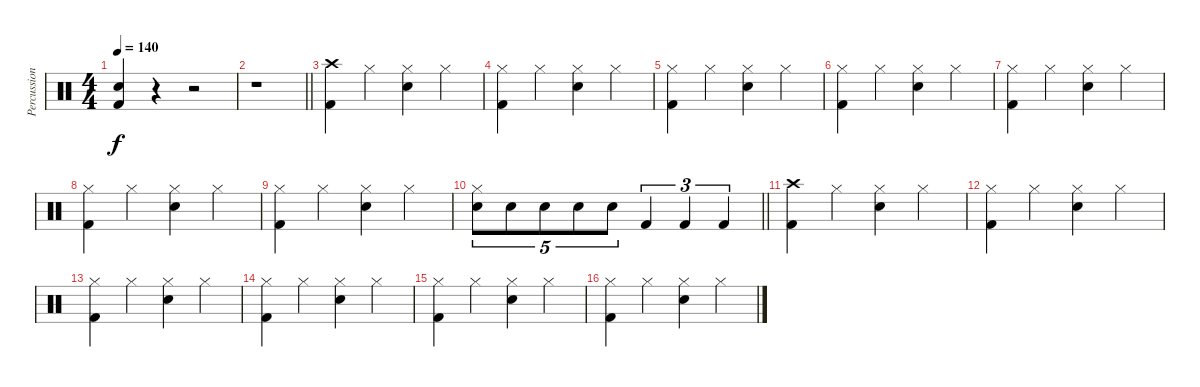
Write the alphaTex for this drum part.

\track ("Percussions" "Percussion") {instrument percussion}
\staff {score}
\articulation defaults
\ts (4 4)
\tempo 140
\clef neutral
\ks c
("Electric Snare (hit)" "Kick (hit) 2").4{dy f} r.4 r.2 |
\barLineRight lightlight
r.1 |
("Crash high (hit)" "Kick (hit) 2").4 "Hi-Hat (closed)".4 ("Hi-Hat (closed)" "Electric Snare (hit)").4 "Hi-Hat (closed)".4 |
("Hi-Hat (closed)" "Kick (hit) 2").4 "Hi-Hat (closed)".4 ("Hi-Hat (closed)" "Electric Snare (hit)").4 "Hi-Hat (closed)".4 |
("Hi-Hat (closed)" "Kick (hit) 2").4 "Hi-Hat (closed)".4 ("Hi-Hat (closed)" "Electric Snare (hit)").4 "Hi-Hat (closed)".4 |
("Hi-Hat (closed)" "Kick (hit) 2").4 "Hi-Hat (closed)".4 ("Hi-Hat (closed)" "Electric Snare (hit)").4 "Hi-Hat (closed)".4 |
("Hi-Hat (closed)" "Kick (hit) 2").4 "Hi-Hat (closed)".4 ("Hi-Hat (closed)" "Electric Snare (hit)").4 "Hi-Hat (closed)".4 |
("Hi-Hat (closed)" "Kick (hit) 2").4 "Hi-Hat (closed)".4 ("Hi-Hat (closed)" "Electric Snare (hit)").4 "Hi-Hat (closed)".4 |
("Hi-Hat (closed)" "Kick (hit) 2").4 "Hi-Hat (closed)".4 ("Hi-Hat (closed)" "Electric Snare (hit)").4 "Hi-Hat (closed)".4 |
\barLineRight lightlight
("Hi-Hat (closed)" "Electric Snare (hit)").8{tu (5 4)} "Electric Snare (hit)".8{tu (5 4)} "Electric Snare (hit)".8{tu (5 4)} "Electric Snare (hit)".8{tu (5 4)} "Electric Snare (hit)".8{tu (5 4)} "Kick (hit) 2".4{tu (3 2)} "Kick (hit) 2".4{tu (3 2)} "Kick (hit) 2".4{tu (3 2)} |
("Crash high (hit)" "Kick (hit) 2").4 "Hi-Hat (closed)".4 ("Hi-Hat (closed)" "Electric Snare (hit)").4 "Hi-Hat (closed)".4 |
("Hi-Hat (closed)" "Kick (hit) 2").4 "Hi-Hat (closed)".4 ("Hi-Hat (closed)" "Electric Snare (hit)").4 "Hi-Hat (closed)".4 |
("Hi-Hat (closed)" "Kick (hit) 2").4 "Hi-Hat (closed)".4 ("Hi-Hat (closed)" "Electric Snare (hit)").4 "Hi-Hat (closed)".4 |
("Hi-Hat (closed)" "Kick (hit) 2").4 "Hi-Hat (closed)".4 ("Hi-Hat (closed)" "Electric Snare (hit)").4 "Hi-Hat (closed)".4 |
("Hi-Hat (closed)" "Kick (hit) 2").4 "Hi-Hat (closed)".4 ("Hi-Hat (closed)" "Electric Snare (hit)").4 "Hi-Hat (closed)".4 |
("Hi-Hat (closed)" "Kick (hit) 2").4 "Hi-Hat (closed)".4 ("Hi-Hat (closed)" "Electric Snare (hit)").4 "Hi-Hat (closed)".4
